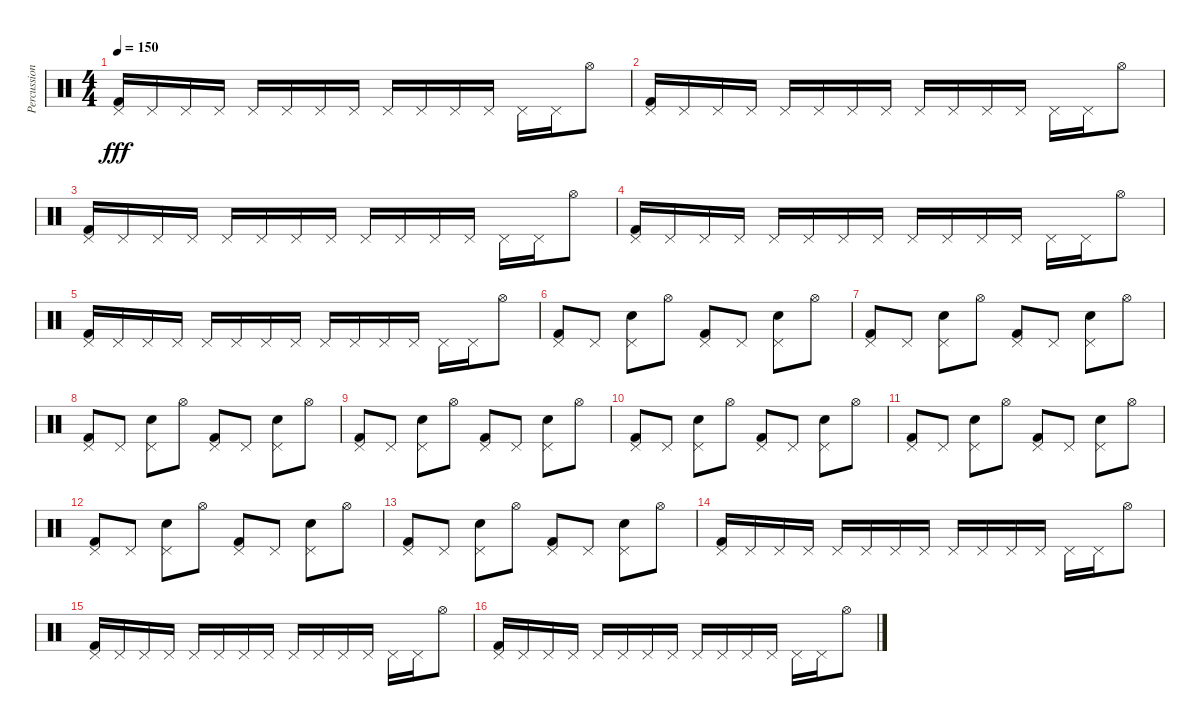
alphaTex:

\track ("Percussions" "Percussion") {instrument percussion}
\staff {score}
\articulation defaults
\ts (4 4)
\tempo 150
\clef neutral
\ks c
("Pedal Hi-Hat (hit)" "Kick (hit) 2").16{dy fff} "Pedal Hi-Hat (hit)".16 "Pedal Hi-Hat (hit)".16 "Pedal Hi-Hat (hit)".16 "Pedal Hi-Hat (hit)".16 "Pedal Hi-Hat (hit)".16 "Pedal Hi-Hat (hit)".16 "Pedal Hi-Hat (hit)".16 "Pedal Hi-Hat (hit)".16 "Pedal Hi-Hat (hit)".16 "Pedal Hi-Hat (hit)".16 "Pedal Hi-Hat (hit)".16 "Pedal Hi-Hat (hit)".16 "Pedal Hi-Hat (hit)".16 "Hi-Hat (open)".8 |
("Pedal Hi-Hat (hit)" "Kick (hit) 2").16 "Pedal Hi-Hat (hit)".16 "Pedal Hi-Hat (hit)".16 "Pedal Hi-Hat (hit)".16 "Pedal Hi-Hat (hit)".16 "Pedal Hi-Hat (hit)".16 "Pedal Hi-Hat (hit)".16 "Pedal Hi-Hat (hit)".16 "Pedal Hi-Hat (hit)".16 "Pedal Hi-Hat (hit)".16 "Pedal Hi-Hat (hit)".16 "Pedal Hi-Hat (hit)".16 "Pedal Hi-Hat (hit)".16 "Pedal Hi-Hat (hit)".16 "Hi-Hat (open)".8 |
("Pedal Hi-Hat (hit)" "Kick (hit) 2").16 "Pedal Hi-Hat (hit)".16 "Pedal Hi-Hat (hit)".16 "Pedal Hi-Hat (hit)".16 "Pedal Hi-Hat (hit)".16 "Pedal Hi-Hat (hit)".16 "Pedal Hi-Hat (hit)".16 "Pedal Hi-Hat (hit)".16 "Pedal Hi-Hat (hit)".16 "Pedal Hi-Hat (hit)".16 "Pedal Hi-Hat (hit)".16 "Pedal Hi-Hat (hit)".16 "Pedal Hi-Hat (hit)".16 "Pedal Hi-Hat (hit)".16 "Hi-Hat (open)".8 |
("Pedal Hi-Hat (hit)" "Kick (hit) 2").16 "Pedal Hi-Hat (hit)".16 "Pedal Hi-Hat (hit)".16 "Pedal Hi-Hat (hit)".16 "Pedal Hi-Hat (hit)".16 "Pedal Hi-Hat (hit)".16 "Pedal Hi-Hat (hit)".16 "Pedal Hi-Hat (hit)".16 "Pedal Hi-Hat (hit)".16 "Pedal Hi-Hat (hit)".16 "Pedal Hi-Hat (hit)".16 "Pedal Hi-Hat (hit)".16 "Pedal Hi-Hat (hit)".16 "Pedal Hi-Hat (hit)".16 "Hi-Hat (open)".8 |
("Pedal Hi-Hat (hit)" "Kick (hit) 2").16 "Pedal Hi-Hat (hit)".16 "Pedal Hi-Hat (hit)".16 "Pedal Hi-Hat (hit)".16 "Pedal Hi-Hat (hit)".16 "Pedal Hi-Hat (hit)".16 "Pedal Hi-Hat (hit)".16 "Pedal Hi-Hat (hit)".16 "Pedal Hi-Hat (hit)".16 "Pedal Hi-Hat (hit)".16 "Pedal Hi-Hat (hit)".16 "Pedal Hi-Hat (hit)".16 "Pedal Hi-Hat (hit)".16 "Pedal Hi-Hat (hit)".16 "Hi-Hat (open)".8 |
("Pedal Hi-Hat (hit)" "Kick (hit) 2").8 "Pedal Hi-Hat (hit)".8 ("Pedal Hi-Hat (hit)" "Electric Snare (hit)").8 "Hi-Hat (open)".8 ("Pedal Hi-Hat (hit)" "Kick (hit) 2").8 "Pedal Hi-Hat (hit)".8 ("Pedal Hi-Hat (hit)" "Electric Snare (hit)").8 "Hi-Hat (open)".8 |
("Pedal Hi-Hat (hit)" "Kick (hit) 2").8 "Pedal Hi-Hat (hit)".8 ("Pedal Hi-Hat (hit)" "Electric Snare (hit)").8 "Hi-Hat (open)".8 ("Pedal Hi-Hat (hit)" "Kick (hit) 2").8 "Pedal Hi-Hat (hit)".8 ("Pedal Hi-Hat (hit)" "Electric Snare (hit)").8 "Hi-Hat (open)".8 |
("Pedal Hi-Hat (hit)" "Kick (hit) 2").8 "Pedal Hi-Hat (hit)".8 ("Pedal Hi-Hat (hit)" "Electric Snare (hit)").8 "Hi-Hat (open)".8 ("Pedal Hi-Hat (hit)" "Kick (hit) 2").8 "Pedal Hi-Hat (hit)".8 ("Pedal Hi-Hat (hit)" "Electric Snare (hit)").8 "Hi-Hat (open)".8 |
("Pedal Hi-Hat (hit)" "Kick (hit) 2").8 "Pedal Hi-Hat (hit)".8 ("Pedal Hi-Hat (hit)" "Electric Snare (hit)").8 "Hi-Hat (open)".8 ("Pedal Hi-Hat (hit)" "Kick (hit) 2").8 "Pedal Hi-Hat (hit)".8 ("Pedal Hi-Hat (hit)" "Electric Snare (hit)").8 "Hi-Hat (open)".8 |
("Pedal Hi-Hat (hit)" "Kick (hit) 2").8 "Pedal Hi-Hat (hit)".8 ("Pedal Hi-Hat (hit)" "Electric Snare (hit)").8 "Hi-Hat (open)".8 ("Pedal Hi-Hat (hit)" "Kick (hit) 2").8 "Pedal Hi-Hat (hit)".8 ("Pedal Hi-Hat (hit)" "Electric Snare (hit)").8 "Hi-Hat (open)".8 |
("Pedal Hi-Hat (hit)" "Kick (hit) 2").8 "Pedal Hi-Hat (hit)".8 ("Pedal Hi-Hat (hit)" "Electric Snare (hit)").8 "Hi-Hat (open)".8 ("Pedal Hi-Hat (hit)" "Kick (hit) 2").8 "Pedal Hi-Hat (hit)".8 ("Pedal Hi-Hat (hit)" "Electric Snare (hit)").8 "Hi-Hat (open)".8 |
("Pedal Hi-Hat (hit)" "Kick (hit) 2").8 "Pedal Hi-Hat (hit)".8 ("Pedal Hi-Hat (hit)" "Electric Snare (hit)").8 "Hi-Hat (open)".8 ("Pedal Hi-Hat (hit)" "Kick (hit) 2").8 "Pedal Hi-Hat (hit)".8 ("Pedal Hi-Hat (hit)" "Electric Snare (hit)").8 "Hi-Hat (open)".8 |
("Pedal Hi-Hat (hit)" "Kick (hit) 2").8 "Pedal Hi-Hat (hit)".8 ("Pedal Hi-Hat (hit)" "Electric Snare (hit)").8 "Hi-Hat (open)".8 ("Pedal Hi-Hat (hit)" "Kick (hit) 2").8 "Pedal Hi-Hat (hit)".8 ("Pedal Hi-Hat (hit)" "Electric Snare (hit)").8 "Hi-Hat (open)".8 |
("Pedal Hi-Hat (hit)" "Kick (hit) 2").16 "Pedal Hi-Hat (hit)".16 "Pedal Hi-Hat (hit)".16 "Pedal Hi-Hat (hit)".16 "Pedal Hi-Hat (hit)".16 "Pedal Hi-Hat (hit)".16 "Pedal Hi-Hat (hit)".16 "Pedal Hi-Hat (hit)".16 "Pedal Hi-Hat (hit)".16 "Pedal Hi-Hat (hit)".16 "Pedal Hi-Hat (hit)".16 "Pedal Hi-Hat (hit)".16 "Pedal Hi-Hat (hit)".16 "Pedal Hi-Hat (hit)".16 "Hi-Hat (open)".8 |
("Pedal Hi-Hat (hit)" "Kick (hit) 2").16 "Pedal Hi-Hat (hit)".16 "Pedal Hi-Hat (hit)".16 "Pedal Hi-Hat (hit)".16 "Pedal Hi-Hat (hit)".16 "Pedal Hi-Hat (hit)".16 "Pedal Hi-Hat (hit)".16 "Pedal Hi-Hat (hit)".16 "Pedal Hi-Hat (hit)".16 "Pedal Hi-Hat (hit)".16 "Pedal Hi-Hat (hit)".16 "Pedal Hi-Hat (hit)".16 "Pedal Hi-Hat (hit)".16 "Pedal Hi-Hat (hit)".16 "Hi-Hat (open)".8 |
("Pedal Hi-Hat (hit)" "Kick (hit) 2").16 "Pedal Hi-Hat (hit)".16 "Pedal Hi-Hat (hit)".16 "Pedal Hi-Hat (hit)".16 "Pedal Hi-Hat (hit)".16 "Pedal Hi-Hat (hit)".16 "Pedal Hi-Hat (hit)".16 "Pedal Hi-Hat (hit)".16 "Pedal Hi-Hat (hit)".16 "Pedal Hi-Hat (hit)".16 "Pedal Hi-Hat (hit)".16 "Pedal Hi-Hat (hit)".16 "Pedal Hi-Hat (hit)".16 "Pedal Hi-Hat (hit)".16 "Hi-Hat (open)".8
